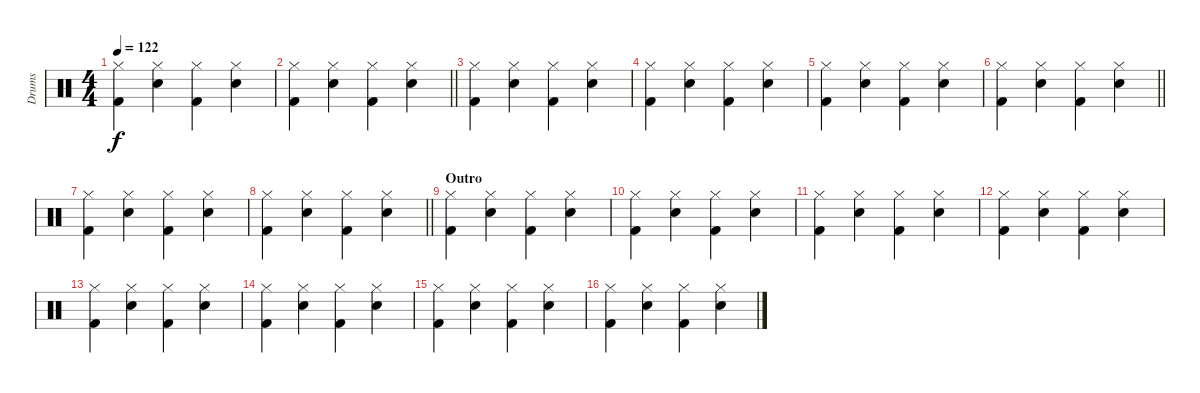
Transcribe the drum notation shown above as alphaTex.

\track ("Drums" "Drums") {instrument percussion}
\staff {score}
\articulation defaults
\ts (4 4)
\tempo 122
\clef neutral
\ks c
("Hi-Hat (closed)" "Kick (hit) 2").4{dy f} ("Hi-Hat (closed)" "Snare (hit) 2").4 ("Hi-Hat (closed)" "Kick (hit) 2").4 ("Hi-Hat (closed)" "Snare (hit) 2").4 |
\barLineRight lightlight
("Hi-Hat (closed)" "Kick (hit) 2").4 ("Hi-Hat (closed)" "Snare (hit) 2").4 ("Hi-Hat (closed)" "Kick (hit) 2").4 ("Hi-Hat (closed)" "Snare (hit) 2").4 |
("Hi-Hat (closed)" "Kick (hit) 2").4 ("Hi-Hat (closed)" "Snare (hit) 2").4 ("Hi-Hat (closed)" "Kick (hit) 2").4 ("Hi-Hat (closed)" "Snare (hit) 2").4 |
("Hi-Hat (closed)" "Kick (hit) 2").4 ("Hi-Hat (closed)" "Snare (hit) 2").4 ("Hi-Hat (closed)" "Kick (hit) 2").4 ("Hi-Hat (closed)" "Snare (hit) 2").4 |
("Hi-Hat (closed)" "Kick (hit) 2").4 ("Hi-Hat (closed)" "Snare (hit) 2").4 ("Hi-Hat (closed)" "Kick (hit) 2").4 ("Hi-Hat (closed)" "Snare (hit) 2").4 |
\barLineRight lightlight
("Hi-Hat (closed)" "Kick (hit) 2").4 ("Hi-Hat (closed)" "Snare (hit) 2").4 ("Hi-Hat (closed)" "Kick (hit) 2").4 ("Hi-Hat (closed)" "Snare (hit) 2").4 |
("Hi-Hat (closed)" "Kick (hit) 2").4 ("Hi-Hat (closed)" "Snare (hit) 2").4 ("Hi-Hat (closed)" "Kick (hit) 2").4 ("Hi-Hat (closed)" "Snare (hit) 2").4 |
\barLineRight lightlight
("Hi-Hat (closed)" "Kick (hit) 2").4 ("Hi-Hat (closed)" "Snare (hit) 2").4 ("Hi-Hat (closed)" "Kick (hit) 2").4 ("Hi-Hat (closed)" "Snare (hit) 2").4 |
\section ("" "Outro")
("Hi-Hat (closed)" "Kick (hit) 2").4 ("Hi-Hat (closed)" "Snare (hit) 2").4 ("Hi-Hat (closed)" "Kick (hit) 2").4 ("Hi-Hat (closed)" "Snare (hit) 2").4 |
("Hi-Hat (closed)" "Kick (hit) 2").4 ("Hi-Hat (closed)" "Snare (hit) 2").4 ("Hi-Hat (closed)" "Kick (hit) 2").4 ("Hi-Hat (closed)" "Snare (hit) 2").4 |
("Hi-Hat (closed)" "Kick (hit) 2").4 ("Hi-Hat (closed)" "Snare (hit) 2").4 ("Hi-Hat (closed)" "Kick (hit) 2").4 ("Hi-Hat (closed)" "Snare (hit) 2").4 |
("Hi-Hat (closed)" "Kick (hit) 2").4 ("Hi-Hat (closed)" "Snare (hit) 2").4 ("Hi-Hat (closed)" "Kick (hit) 2").4 ("Hi-Hat (closed)" "Snare (hit) 2").4 |
("Hi-Hat (closed)" "Kick (hit) 2").4 ("Hi-Hat (closed)" "Snare (hit) 2").4 ("Hi-Hat (closed)" "Kick (hit) 2").4 ("Hi-Hat (closed)" "Snare (hit) 2").4 |
("Hi-Hat (closed)" "Kick (hit) 2").4 ("Hi-Hat (closed)" "Snare (hit) 2").4 ("Hi-Hat (closed)" "Kick (hit) 2").4 ("Hi-Hat (closed)" "Snare (hit) 2").4 |
("Hi-Hat (closed)" "Kick (hit) 2").4 ("Hi-Hat (closed)" "Snare (hit) 2").4 ("Hi-Hat (closed)" "Kick (hit) 2").4 ("Hi-Hat (closed)" "Snare (hit) 2").4 |
("Hi-Hat (closed)" "Kick (hit) 2").4 ("Hi-Hat (closed)" "Snare (hit) 2").4 ("Hi-Hat (closed)" "Kick (hit) 2").4 ("Hi-Hat (closed)" "Snare (hit) 2").4
